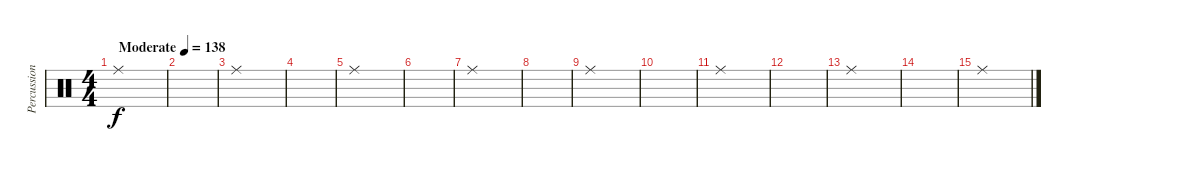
\track ("Percussion" "Percussion") {instrument percussion}
\staff {score}
\articulation defaults
\ts (4 4)
\tempo (138 "Moderate")
\clef neutral
\ks c "Ride (middle)".1{dy f}
|
|
"Ride (middle)".1 |
|
"Ride (middle)".1 |
|
"Ride (middle)".1 |
|
"Ride (middle)".1 |
|
"Ride (middle)".1 |
|
"Ride (middle)".1 |
|
"Ride (middle)".1
